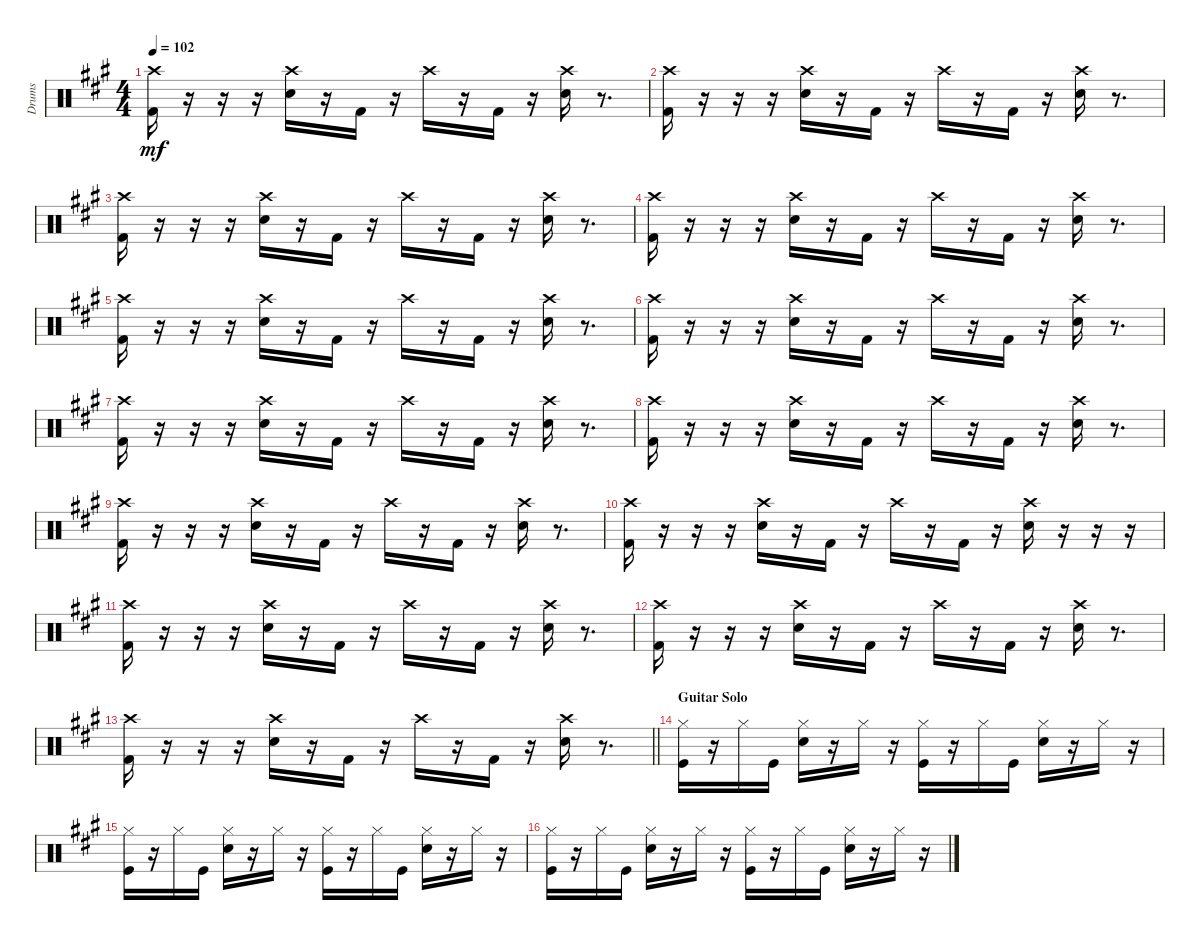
\track ("Drums" "Drums") {instrument percussion}
\staff {score}
\articulation defaults
\ts (4 4)
\tempo 102
\clef neutral
\ks f#minor
("Crash high (hit)" "Kick (hit) 2").16{dy mf} r.16 r.16 r.16 ("Crash high (hit)" "Electric Snare (hit)").16 r.16 "Kick (hit) 2".16 r.16 "Crash high (hit)".16 r.16 "Kick (hit) 2".16 r.16 ("Crash high (hit)" "Electric Snare (hit)").16 r.8{d} |
("Crash high (hit)" "Kick (hit) 2").16 r.16 r.16 r.16 ("Crash high (hit)" "Electric Snare (hit)").16 r.16 "Kick (hit) 2".16 r.16 "Crash high (hit)".16 r.16 "Kick (hit) 2".16 r.16 ("Crash high (hit)" "Electric Snare (hit)").16 r.8{d} |
("Crash high (hit)" "Kick (hit) 2").16 r.16 r.16 r.16 ("Crash high (hit)" "Electric Snare (hit)").16 r.16 "Kick (hit) 2".16 r.16 "Crash high (hit)".16 r.16 "Kick (hit) 2".16 r.16 ("Crash high (hit)" "Electric Snare (hit)").16 r.8{d} |
("Crash high (hit)" "Kick (hit) 2").16 r.16 r.16 r.16 ("Crash high (hit)" "Electric Snare (hit)").16 r.16 "Kick (hit) 2".16 r.16 "Crash high (hit)".16 r.16 "Kick (hit) 2".16 r.16 ("Crash high (hit)" "Electric Snare (hit)").16 r.8{d} |
("Crash high (hit)" "Kick (hit) 2").16 r.16 r.16 r.16 ("Crash high (hit)" "Electric Snare (hit)").16 r.16 "Kick (hit) 2".16 r.16 "Crash high (hit)".16 r.16 "Kick (hit) 2".16 r.16 ("Crash high (hit)" "Electric Snare (hit)").16 r.8{d} |
("Crash high (hit)" "Kick (hit) 2").16 r.16 r.16 r.16 ("Crash high (hit)" "Electric Snare (hit)").16 r.16 "Kick (hit) 2".16 r.16 "Crash high (hit)".16 r.16 "Kick (hit) 2".16 r.16 ("Crash high (hit)" "Electric Snare (hit)").16 r.8{d} |
("Crash high (hit)" "Kick (hit) 2").16 r.16 r.16 r.16 ("Crash high (hit)" "Electric Snare (hit)").16 r.16 "Kick (hit) 2".16 r.16 "Crash high (hit)".16 r.16 "Kick (hit) 2".16 r.16 ("Crash high (hit)" "Electric Snare (hit)").16 r.8{d} |
("Crash high (hit)" "Kick (hit) 2").16 r.16 r.16 r.16 ("Crash high (hit)" "Electric Snare (hit)").16 r.16 "Kick (hit) 2".16 r.16 "Crash high (hit)".16 r.16 "Kick (hit) 2".16 r.16 ("Crash high (hit)" "Electric Snare (hit)").16 r.8{d} |
("Crash high (hit)" "Kick (hit) 2").16 r.16 r.16 r.16 ("Crash high (hit)" "Electric Snare (hit)").16 r.16 "Kick (hit) 2".16 r.16 "Crash high (hit)".16 r.16 "Kick (hit) 2".16 r.16 ("Crash high (hit)" "Electric Snare (hit)").16 r.8{d} |
("Crash high (hit)" "Kick (hit) 2").16 r.16 r.16 r.16 ("Crash high (hit)" "Electric Snare (hit)").16 r.16 "Kick (hit) 2".16 r.16 "Crash high (hit)".16 r.16 "Kick (hit) 2".16 r.16 ("Crash high (hit)" "Electric Snare (hit)").16 r.16 r.16 r.16 |
("Crash high (hit)" "Kick (hit) 2").16 r.16 r.16 r.16 ("Crash high (hit)" "Electric Snare (hit)").16 r.16 "Kick (hit) 2".16 r.16 "Crash high (hit)".16 r.16 "Kick (hit) 2".16 r.16 ("Crash high (hit)" "Electric Snare (hit)").16 r.8{d} |
("Crash high (hit)" "Kick (hit) 2").16 r.16 r.16 r.16 ("Crash high (hit)" "Electric Snare (hit)").16 r.16 "Kick (hit) 2".16 r.16 "Crash high (hit)".16 r.16 "Kick (hit) 2".16 r.16 ("Crash high (hit)" "Electric Snare (hit)").16 r.8{d} |
\barLineRight lightlight
("Crash high (hit)" "Kick (hit) 2").16 r.16 r.16 r.16 ("Crash high (hit)" "Electric Snare (hit)").16 r.16 "Kick (hit) 2".16 r.16 "Crash high (hit)".16 r.16 "Kick (hit) 2".16 r.16 ("Crash high (hit)" "Electric Snare (hit)").16 r.8{d} |
\section ("" "Guitar Solo")
("Hi-Hat (closed)" "Kick (hit)").16 r.16 "Hi-Hat (closed)".16 "Kick (hit)".16 ("Hi-Hat (closed)" "Snare (hit) 2").16 r.16 "Hi-Hat (closed)".16 r.16 ("Hi-Hat (closed)" "Kick (hit)").16 r.16 "Hi-Hat (closed)".16 "Kick (hit)".16 ("Hi-Hat (closed)" "Snare (hit) 2").16 r.16 "Hi-Hat (closed)".16 r.16 |
("Hi-Hat (closed)" "Kick (hit)").16 r.16 "Hi-Hat (closed)".16 "Kick (hit)".16 ("Hi-Hat (closed)" "Snare (hit) 2").16 r.16 "Hi-Hat (closed)".16 r.16 ("Hi-Hat (closed)" "Kick (hit)").16 r.16 "Hi-Hat (closed)".16 "Kick (hit)".16 ("Hi-Hat (closed)" "Snare (hit) 2").16 r.16 "Hi-Hat (closed)".16 r.16 |
("Hi-Hat (closed)" "Kick (hit)").16 r.16 "Hi-Hat (closed)".16 "Kick (hit)".16 ("Hi-Hat (closed)" "Snare (hit) 2").16 r.16 "Hi-Hat (closed)".16 r.16 ("Hi-Hat (closed)" "Kick (hit)").16 r.16 "Hi-Hat (closed)".16 "Kick (hit)".16 ("Hi-Hat (closed)" "Snare (hit) 2").16 r.16 "Hi-Hat (closed)".16 r.16
